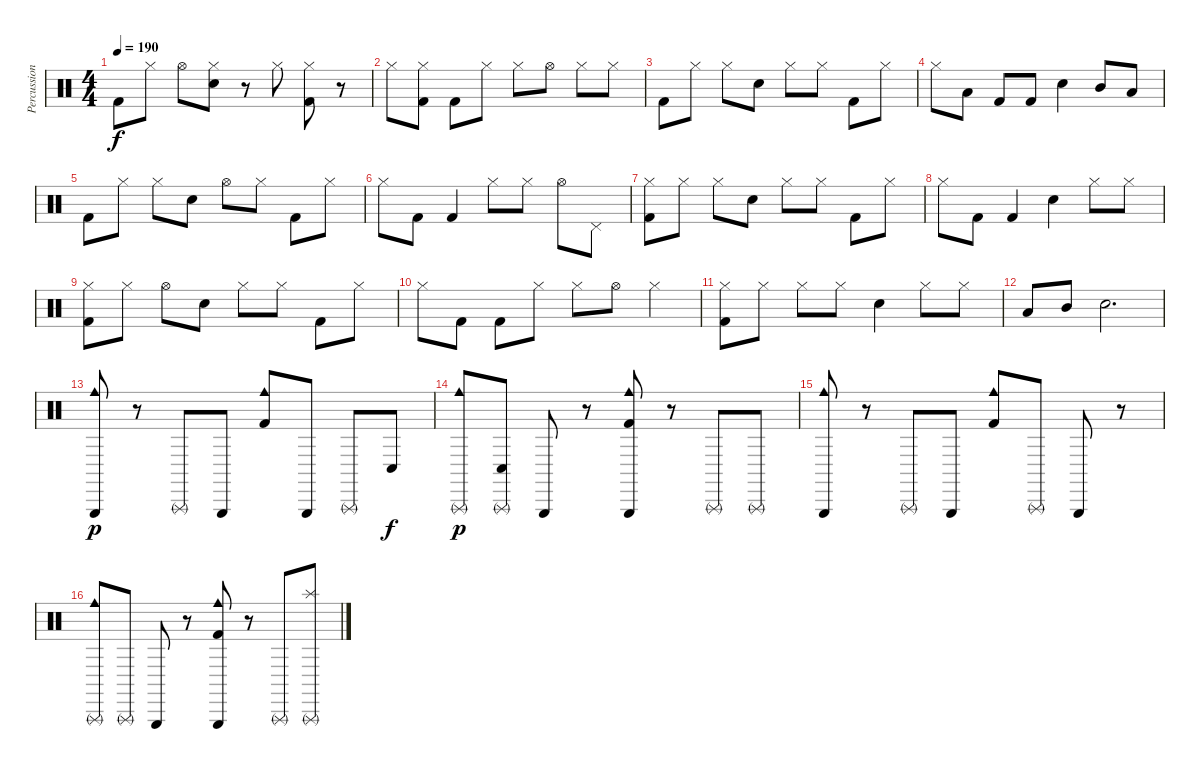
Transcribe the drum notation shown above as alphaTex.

\track ("Percussion" "Percussion") {instrument percussion}
\staff {score}
\articulation defaults
\ts (4 4)
\tempo 190
\clef neutral
\ks c "Kick (hit) 2".8{dy f} "Hi-Hat (closed)".8 "Hi-Hat (open)".8
("Hi-Hat (closed)" "Electric Snare (hit)").8 r.8 "Hi-Hat (closed)".8 ("Hi-Hat (closed)" "Kick (hit) 2").8 r.8 |
"Hi-Hat (closed)".8 ("Hi-Hat (closed)" "Kick (hit) 2").8 "Kick (hit) 2".8 "Hi-Hat (closed)".8 "Hi-Hat (closed)".8 "Hi-Hat (open)".8 "Hi-Hat (closed)".8 "Hi-Hat (closed)".8 |
"Kick (hit) 2".8 "Hi-Hat (closed)".8 "Hi-Hat (closed)".8 "Electric Snare (hit)".8 "Hi-Hat (closed)".8 "Hi-Hat (closed)".8 "Kick (hit) 2".8 "Hi-Hat (closed)".8 |
"Hi-Hat (closed)".8 "Low Tom (hit)".8 "Kick (hit) 2".8 "Kick (hit) 2".8 "Electric Snare (hit)".4 "Mid Tom (hit)".8 "Low Tom (hit)".8 |
"Kick (hit) 2".8 "Hi-Hat (closed)".8 "Hi-Hat (closed)".8 "Electric Snare (hit)".8 "Hi-Hat (open)".8 "Hi-Hat (closed)".8 "Kick (hit) 2".8 "Hi-Hat (closed)".8 |
"Hi-Hat (closed)".8 "Kick (hit) 2".8 "Kick (hit) 2".4 "Hi-Hat (closed)".8 "Hi-Hat (closed)".8 "Hi-Hat (open)".8 "Pedal Hi-Hat (hit)".8 |
("Hi-Hat (closed)" "Kick (hit) 2").8 "Hi-Hat (closed)".8 "Hi-Hat (closed)".8 "Electric Snare (hit)".8 "Hi-Hat (closed)".8 "Hi-Hat (closed)".8 "Kick (hit) 2".8 "Hi-Hat (closed)".8 |
"Hi-Hat (closed)".8 "Kick (hit) 2".8 "Kick (hit) 2".4 "Electric Snare (hit)".4 "Hi-Hat (closed)".8 "Hi-Hat (closed)".8 |
("Hi-Hat (closed)" "Kick (hit) 2").8 "Hi-Hat (closed)".8 "Hi-Hat (open)".8 "Electric Snare (hit)".8 "Hi-Hat (closed)".8 "Hi-Hat (closed)".8 "Kick (hit) 2".8 "Hi-Hat (closed)".8 |
"Hi-Hat (closed)".8 "Kick (hit) 2".8 "Kick (hit) 2".8 "Hi-Hat (closed)".8 "Hi-Hat (closed)".8 "Hi-Hat (open)".8 "Hi-Hat (closed)".4 |
("Hi-Hat (closed)" "Kick (hit) 2").8 "Hi-Hat (closed)".8 "Hi-Hat (closed)".8 "Hi-Hat (closed)".8 "Electric Snare (hit)".4 "Hi-Hat (closed)".8 "Hi-Hat (closed)".8 |
"Low Tom (hit)".8 "Mid Tom (hit)".8 "Electric Snare (hit)".2{d} |
("Cowbell medium (hit)" "Triangle (hit)").8{dy p} r.8 "Triangle (rnute)".8 "Triangle (hit)".8 ("Cowbell medium (hit)" "Kick (hit) 2").8 "Triangle (hit)".8 "Triangle (rnute)".8 "Conga low (hit)".8{dy f} |
("Cowbell medium (hit)" "Triangle (rnute)").8{dy p} ("Conga low (hit)" "Triangle (rnute)").8 "Triangle (hit)".8 r.8 ("Cowbell medium (hit)" "Triangle (hit)" "Kick (hit) 2").8 r.8 "Triangle (rnute)".8 "Triangle (rnute)".8 |
("Cowbell medium (hit)" "Triangle (hit)").8 r.8 "Triangle (rnute)".8 "Triangle (hit)".8 ("Cowbell medium (hit)" "Kick (hit) 2").8 "Triangle (rnute)".8 "Triangle (hit)".8 r.8 |
("Cowbell medium (hit)" "Triangle (rnute)").8 "Triangle (rnute)".8 "Triangle (hit)".8 r.8 ("Cowbell medium (hit)" "Triangle (hit)" "Kick (hit) 2").8 r.8 "Triangle (rnute)".8 ("Splash (hit)" "Triangle (rnute)").8
